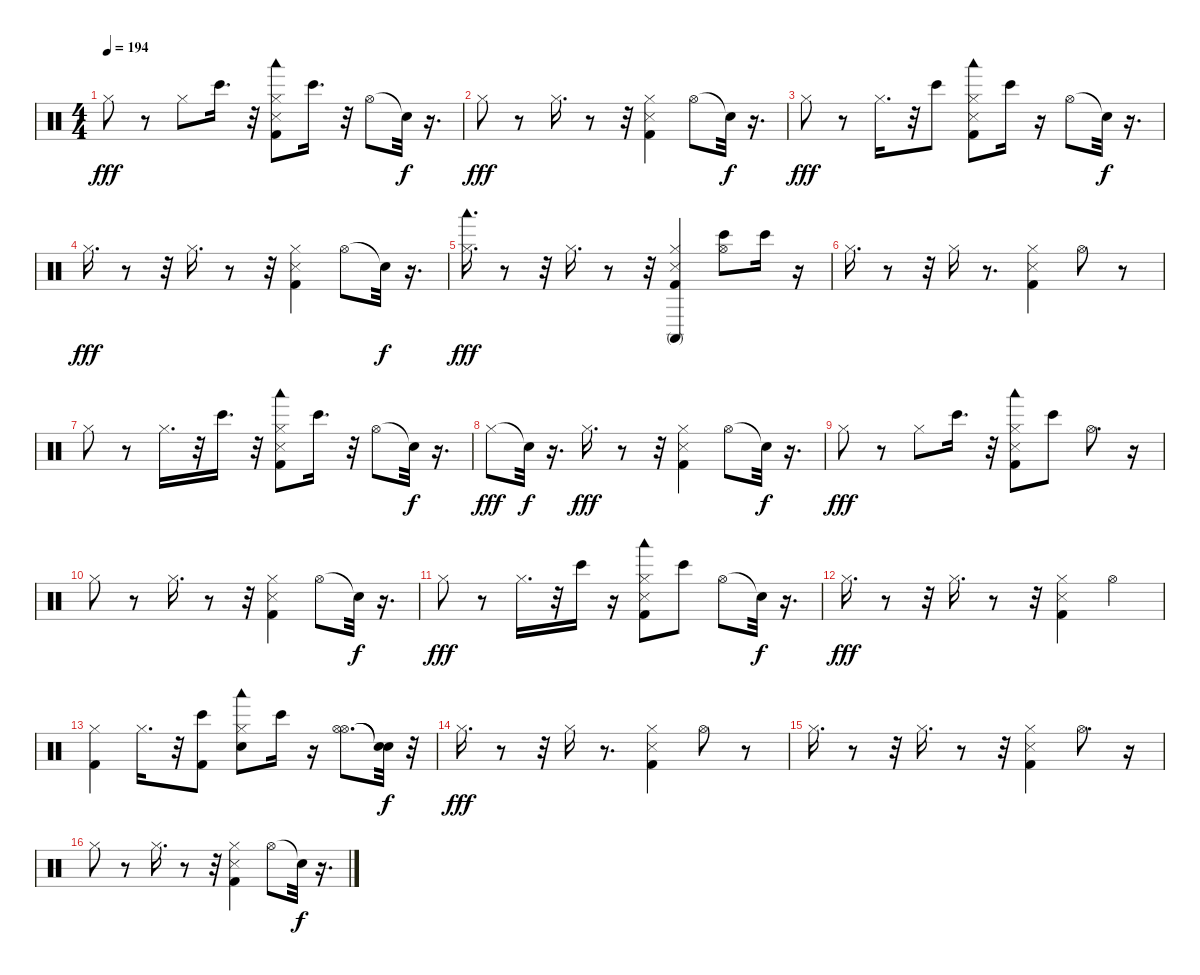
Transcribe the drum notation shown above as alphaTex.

\track "" {instrument percussion}
\staff {score}
\articulation defaults
\ts (4 4)
\tempo 194
\clef neutral
\ks c "Hi-Hat (closed)".8{dy fff}
r.8 "Hi-Hat (closed)".8 "Bongo High (hit)".16{d} r.32 ("Kick (hit) 2" "Hi-Hat (closed)" "Snare (side stick) 3" "Woodblock low (hit)").8 "Bongo High (hit)".16{d} r.32 "Hi-Hat (open)".8 "Snare (hit)"{t}.32{dy f} r.16{d} |
"Hi-Hat (closed)".8{dy fff} r.8 "Hi-Hat (closed)".16{d} r.8 r.32 ("Kick (hit) 2" "Snare (side stick) 3" "Hi-Hat (closed)").4 "Hi-Hat (open)".8 "Snare (hit)"{t}.32{dy f} r.16{d} |
"Hi-Hat (closed)".8{dy fff} r.8 "Hi-Hat (closed)".16{d} r.32 "Bongo High (hit)".8 ("Kick (hit) 2" "Snare (side stick) 3" "Hi-Hat (closed)" "Woodblock low (hit)").8 "Bongo High (hit)".16 r.16 "Hi-Hat (open)".8 "Snare (hit)"{t}.32{dy f} r.16{d} |
"Hi-Hat (closed)".16{d dy fff} r.8 r.32 "Hi-Hat (closed)".16{d} r.8 r.32 ("Kick (hit) 2" "Snare (side stick) 3" "Hi-Hat (closed)").4 "Hi-Hat (open)".8 "Snare (hit)"{t}.32{dy f} r.16{d} |
("Hi-Hat (closed)" "Woodblock low (hit)").16{d dy fff} r.8 r.32 "Hi-Hat (closed)".16{d} r.8 r.32 ("Kick (hit) 2" "Hi-Hat (closed)" "Snare (side stick) 3" "Conga high (mute)").4 ("Hi-Hat (open)" "Bongo High (hit)").8 "Bongo High (hit)".16 r.16 |
"Hi-Hat (closed)".16{d} r.8 r.32 "Hi-Hat (closed)".16 r.8{d} ("Snare (side stick) 3" "Kick (hit) 2" "Hi-Hat (closed)").4 "Hi-Hat (open)".8 r.8 |
"Hi-Hat (closed)".8 r.8 "Hi-Hat (closed)".16{d} r.32 "Bongo High (hit)".16{d} r.32 ("Snare (side stick) 3" "Kick (hit) 2" "Hi-Hat (closed)" "Woodblock low (hit)").8 "Bongo High (hit)".16{d} r.32 "Hi-Hat (open)".8 "Snare (hit)"{t}.32{dy f} r.16{d} |
"Hi-Hat (closed)".8{dy fff} "Snare (hit)"{t}.32{dy f} r.16{d} "Hi-Hat (closed)".16{d dy fff} r.8 r.32 ("Snare (side stick) 3" "Kick (hit) 2" "Hi-Hat (closed)").4 "Hi-Hat (open)".8 "Snare (hit)"{t}.32{dy f} r.16{d} |
"Hi-Hat (closed)".8{dy fff} r.8 "Hi-Hat (closed)".8 "Bongo High (hit)".16{d} r.32 ("Hi-Hat (closed)" "Snare (side stick) 3" "Kick (hit) 2" "Woodblock low (hit)").8 "Bongo High (hit)".8 "Hi-Hat (open)".8{d} r.16 |
"Hi-Hat (closed)".8 r.8 "Hi-Hat (closed)".16{d} r.8 r.32 ("Snare (side stick) 3" "Kick (hit) 2" "Hi-Hat (closed)").4 "Hi-Hat (open)".8 "Snare (hit)"{t}.32{dy f} r.16{d} |
"Hi-Hat (closed)".8{dy fff} r.8 "Hi-Hat (closed)".16{d} r.32 "Bongo High (hit)".16 r.16 ("Snare (side stick) 3" "Kick (hit) 2" "Hi-Hat (closed)" "Woodblock low (hit)").8 "Bongo High (hit)".8 "Hi-Hat (open)".8 "Snare (hit)"{t}.32{dy f} r.16{d} |
"Hi-Hat (closed)".16{d dy fff} r.8 r.32 "Hi-Hat (closed)".16{d} r.8 r.32 ("Kick (hit) 2" "Snare (side stick) 3" "Hi-Hat (closed)").4 "Hi-Hat (open)".4 |
("Hi-Hat (closed)" "Kick (hit) 2").4 "Hi-Hat (closed)".16{d} r.32 ("Bongo High (hit)" "Kick (hit) 2").8 ("Hi-Hat (closed)" "Woodblock low (hit)" "Snare (hit) 2").8 "Bongo High (hit)".16 r.16 ("Hi-Hat (open)" "Hi-Hat (open)").8{d} ("Snare (hit)"{t} "Snare (hit)"{t}).32{dy f} r.32 |
"Hi-Hat (closed)".16{d dy fff} r.8 r.32 "Hi-Hat (closed)".16 r.8{d} ("Snare (side stick) 3" "Kick (hit) 2" "Hi-Hat (closed)").4 "Hi-Hat (open)".8 r.8 |
"Hi-Hat (closed)".16{d} r.8 r.32 "Hi-Hat (closed)".16{d} r.8 r.32 ("Snare (side stick) 3" "Kick (hit) 2" "Hi-Hat (closed)").4 "Hi-Hat (open)".8{d} r.16 |
"Hi-Hat (closed)".8 r.8 "Hi-Hat (closed)".16{d} r.8 r.32 ("Snare (side stick) 3" "Kick (hit) 2" "Hi-Hat (closed)").4 "Hi-Hat (open)".8 "Snare (hit)"{t}.32{dy f} r.16{d}
